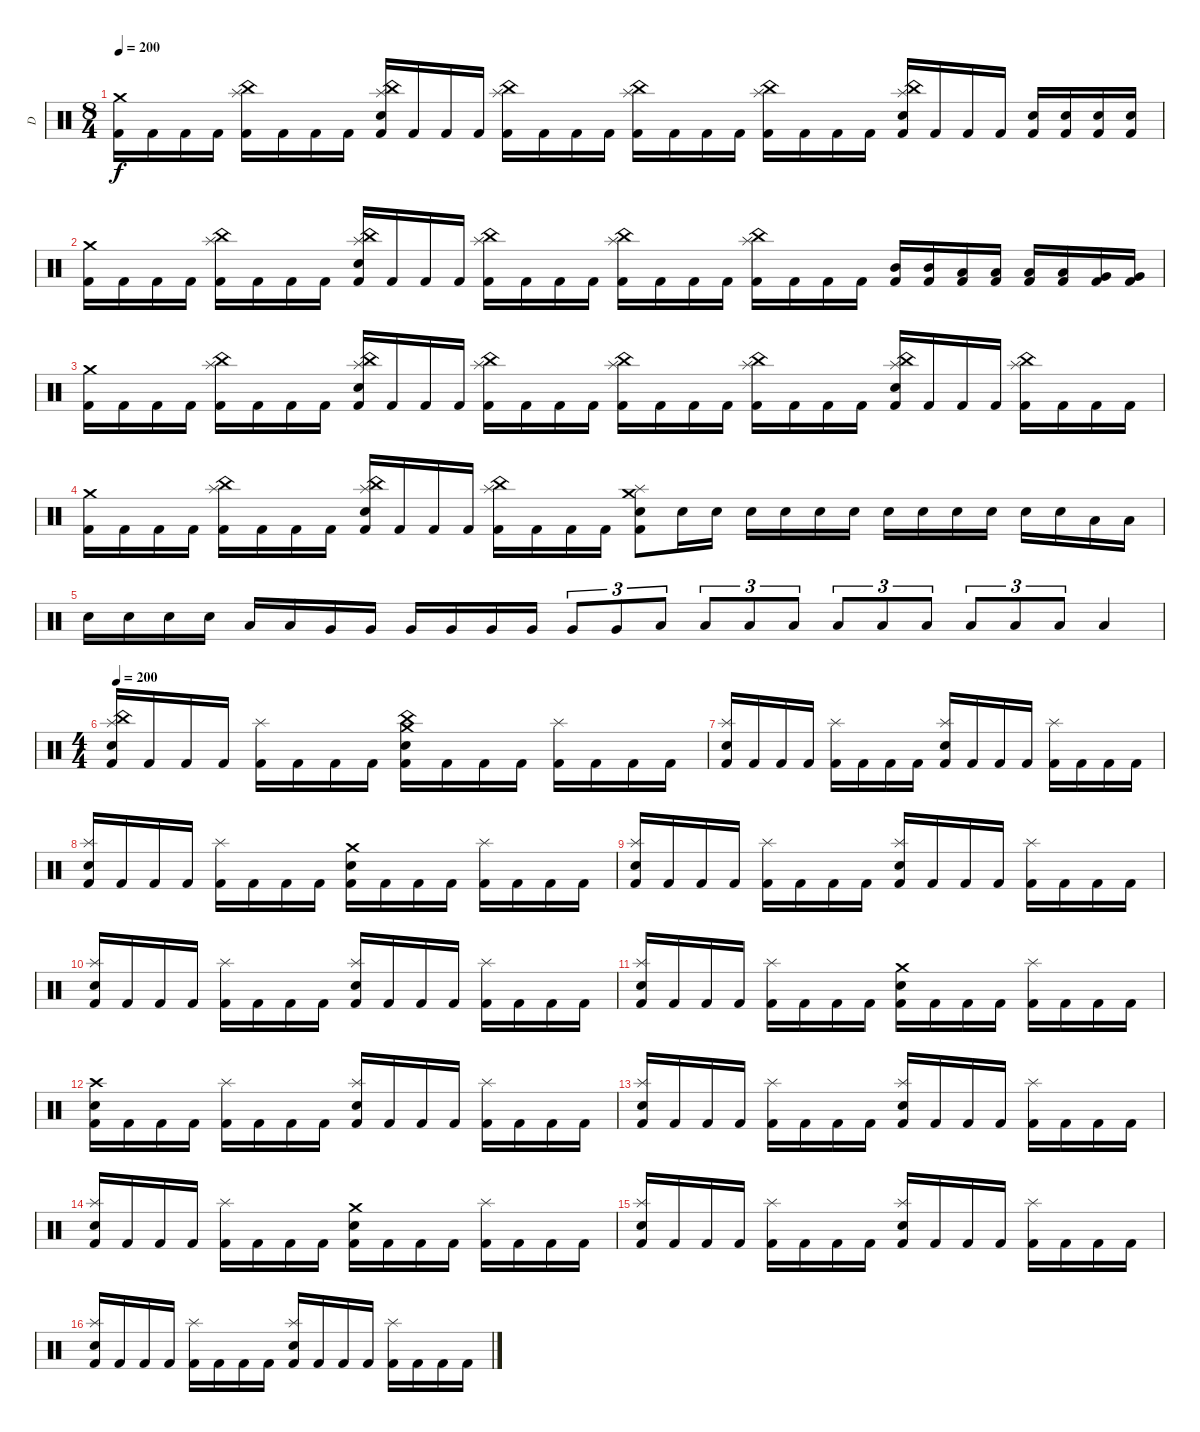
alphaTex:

\track ("D" "D") {instrument percussion}
\staff {score}
\articulation defaults
\ts (8 4)
\tempo 200
\clef neutral
\ks c
("Crash medium (hit)" "Kick (hit) 2").16{dy f} "Kick (hit) 2".16 "Kick (hit) 2".16 "Kick (hit) 2".16 ("Splash (hit)" "China (hit)" "Kick (hit) 2").16 "Kick (hit) 2".16 "Kick (hit) 2".16 "Kick (hit) 2".16 ("Splash (hit)" "China (hit)" "Electric Snare (hit)" "Kick (hit) 2").16 "Kick (hit) 2".16 "Kick (hit) 2".16 "Kick (hit) 2".16 ("Splash (hit)" "China (hit)" "Kick (hit) 2").16 "Kick (hit) 2".16 "Kick (hit) 2".16 "Kick (hit) 2".16 ("Splash (hit)" "China (hit)" "Kick (hit) 2").16 "Kick (hit) 2".16 "Kick (hit) 2".16 "Kick (hit) 2".16 ("Splash (hit)" "China (hit)" "Kick (hit) 2").16 "Kick (hit) 2".16 "Kick (hit) 2".16 "Kick (hit) 2".16 ("Splash (hit)" "China (hit)" "Electric Snare (hit)" "Kick (hit) 2").16 "Kick (hit) 2".16 "Kick (hit) 2".16 "Kick (hit) 2".16 ("Electric Snare (hit)" "Kick (hit) 2").16 ("Electric Snare (hit)" "Kick (hit) 2").16 ("Electric Snare (hit)" "Kick (hit) 2").16 ("Electric Snare (hit)" "Kick (hit) 2").16 |
("Crash medium (hit)" "Kick (hit) 2").16 "Kick (hit) 2".16 "Kick (hit) 2".16 "Kick (hit) 2".16 ("Splash (hit)" "China (hit)" "Kick (hit) 2").16 "Kick (hit) 2".16 "Kick (hit) 2".16 "Kick (hit) 2".16 ("Splash (hit)" "China (hit)" "Electric Snare (hit)" "Kick (hit) 2").16 "Kick (hit) 2".16 "Kick (hit) 2".16 "Kick (hit) 2".16 ("Splash (hit)" "China (hit)" "Kick (hit) 2").16 "Kick (hit) 2".16 "Kick (hit) 2".16 "Kick (hit) 2".16 ("Splash (hit)" "China (hit)" "Kick (hit) 2").16 "Kick (hit) 2".16 "Kick (hit) 2".16 "Kick (hit) 2".16 ("Splash (hit)" "China (hit)" "Kick (hit) 2").16 "Kick (hit) 2".16 "Kick (hit) 2".16 "Kick (hit) 2".16 ("Mid Tom (hit)" "Kick (hit) 2").16 ("Mid Tom (hit)" "Kick (hit) 2").16 ("Low Tom (hit)" "Kick (hit) 2").16 ("Low Tom (hit)" "Kick (hit) 2").16 ("Low Tom (hit)" "Kick (hit) 2").16 ("Low Tom (hit)" "Kick (hit) 2").16 ("Very Low Tom (hit)" "Kick (hit) 2").16 ("Very Low Tom (hit)" "Kick (hit) 2").16 |
("Crash medium (hit)" "Kick (hit) 2").16 "Kick (hit) 2".16 "Kick (hit) 2".16 "Kick (hit) 2".16 ("Splash (hit)" "China (hit)" "Kick (hit) 2").16 "Kick (hit) 2".16 "Kick (hit) 2".16 "Kick (hit) 2".16 ("Splash (hit)" "China (hit)" "Electric Snare (hit)" "Kick (hit) 2").16 "Kick (hit) 2".16 "Kick (hit) 2".16 "Kick (hit) 2".16 ("Splash (hit)" "China (hit)" "Kick (hit) 2").16 "Kick (hit) 2".16 "Kick (hit) 2".16 "Kick (hit) 2".16 ("Splash (hit)" "China (hit)" "Kick (hit) 2").16 "Kick (hit) 2".16 "Kick (hit) 2".16 "Kick (hit) 2".16 ("Splash (hit)" "China (hit)" "Kick (hit) 2").16 "Kick (hit) 2".16 "Kick (hit) 2".16 "Kick (hit) 2".16 ("Splash (hit)" "China (hit)" "Electric Snare (hit)" "Kick (hit) 2").16 "Kick (hit) 2".16 "Kick (hit) 2".16 "Kick (hit) 2".16 ("Splash (hit)" "China (hit)" "Kick (hit) 2").16 "Kick (hit) 2".16 "Kick (hit) 2".16 "Kick (hit) 2".16 |
("Crash medium (hit)" "Kick (hit) 2").16 "Kick (hit) 2".16 "Kick (hit) 2".16 "Kick (hit) 2".16 ("Splash (hit)" "China (hit)" "Kick (hit) 2").16 "Kick (hit) 2".16 "Kick (hit) 2".16 "Kick (hit) 2".16 ("Splash (hit)" "China (hit)" "Electric Snare (hit)" "Kick (hit) 2").16 "Kick (hit) 2".16 "Kick (hit) 2".16 "Kick (hit) 2".16 ("Splash (hit)" "China (hit)" "Kick (hit) 2").16 "Kick (hit) 2".16 "Kick (hit) 2".16 "Kick (hit) 2".16 ("Splash (hit)" "Crash medium (hit)" "Electric Snare (hit)" "Kick (hit) 2").8 "Electric Snare (hit)".16 "Electric Snare (hit)".16 "Electric Snare (hit)".16 "Electric Snare (hit)".16 "Electric Snare (hit)".16 "Electric Snare (hit)".16 "Electric Snare (hit)".16 "Electric Snare (hit)".16 "Electric Snare (hit)".16 "Electric Snare (hit)".16 "Electric Snare (hit)".16 "Electric Snare (hit)".16 "Low Tom (hit)".16 "Low Tom (hit)".16 |
"Electric Snare (hit)".16 "Electric Snare (hit)".16 "Electric Snare (hit)".16 "Electric Snare (hit)".16 "Low Tom (hit)".16 "Low Tom (hit)".16 "Very Low Tom (hit)".16 "Very Low Tom (hit)".16 "Very Low Tom (hit)".16 "Very Low Tom (hit)".16 "Very Low Tom (hit)".16 "Very Low Tom (hit)".16 "Very Low Tom (hit)".8{tu (3 2)} "Very Low Tom (hit)".8{tu (3 2)} "Low Floor Tom (hit)".8{tu (3 2)} "Low Floor Tom (hit)".8{tu (3 2)} "Low Floor Tom (hit)".8{tu (3 2)} "Low Floor Tom (hit)".8{tu (3 2)} "Low Floor Tom (hit)".8{tu (3 2)} "Low Floor Tom (hit)".8{tu (3 2)} "Low Floor Tom (hit)".8{tu (3 2)} "Low Floor Tom (hit)".8{tu (3 2)} "Low Floor Tom (hit)".8{tu (3 2)} "Low Floor Tom (hit)".8{tu (3 2)} "Low Floor Tom (hit)".4 |
\ts (4 4)
\tempo 200
("Electric Snare (hit)" "Splash (hit)" "China (hit)" "Kick (hit) 2").16 "Kick (hit) 2".16 "Kick (hit) 2".16 "Kick (hit) 2".16 ("Splash (hit)" "Kick (hit) 2").16 "Kick (hit) 2".16 "Kick (hit) 2".16 "Kick (hit) 2".16 ("Crash medium (hit)" "Electric Snare (hit)" "China (hit)" "Kick (hit) 2").16 "Kick (hit) 2".16 "Kick (hit) 2".16 "Kick (hit) 2".16 ("Splash (hit)" "Kick (hit) 2").16 "Kick (hit) 2".16 "Kick (hit) 2".16 "Kick (hit) 2".16 |
("Electric Snare (hit)" "Splash (hit)" "Kick (hit) 2").16 "Kick (hit) 2".16 "Kick (hit) 2".16 "Kick (hit) 2".16 ("Splash (hit)" "Kick (hit) 2").16 "Kick (hit) 2".16 "Kick (hit) 2".16 "Kick (hit) 2".16 ("Splash (hit)" "Electric Snare (hit)" "Kick (hit) 2").16 "Kick (hit) 2".16 "Kick (hit) 2".16 "Kick (hit) 2".16 ("Splash (hit)" "Kick (hit) 2").16 "Kick (hit) 2".16 "Kick (hit) 2".16 "Kick (hit) 2".16 |
("Electric Snare (hit)" "Splash (hit)" "Kick (hit) 2").16 "Kick (hit) 2".16 "Kick (hit) 2".16 "Kick (hit) 2".16 ("Splash (hit)" "Kick (hit) 2").16 "Kick (hit) 2".16 "Kick (hit) 2".16 "Kick (hit) 2".16 ("Crash medium (hit)" "Electric Snare (hit)" "Kick (hit) 2").16 "Kick (hit) 2".16 "Kick (hit) 2".16 "Kick (hit) 2".16 ("Splash (hit)" "Kick (hit) 2").16 "Kick (hit) 2".16 "Kick (hit) 2".16 "Kick (hit) 2".16 |
("Electric Snare (hit)" "Splash (hit)" "Kick (hit) 2").16 "Kick (hit) 2".16 "Kick (hit) 2".16 "Kick (hit) 2".16 ("Splash (hit)" "Kick (hit) 2").16 "Kick (hit) 2".16 "Kick (hit) 2".16 "Kick (hit) 2".16 ("Splash (hit)" "Electric Snare (hit)" "Kick (hit) 2").16 "Kick (hit) 2".16 "Kick (hit) 2".16 "Kick (hit) 2".16 ("Splash (hit)" "Kick (hit) 2").16 "Kick (hit) 2".16 "Kick (hit) 2".16 "Kick (hit) 2".16 |
("Electric Snare (hit)" "Splash (hit)" "Kick (hit) 2").16 "Kick (hit) 2".16 "Kick (hit) 2".16 "Kick (hit) 2".16 ("Splash (hit)" "Kick (hit) 2").16 "Kick (hit) 2".16 "Kick (hit) 2".16 "Kick (hit) 2".16 ("Splash (hit)" "Electric Snare (hit)" "Kick (hit) 2").16 "Kick (hit) 2".16 "Kick (hit) 2".16 "Kick (hit) 2".16 ("Splash (hit)" "Kick (hit) 2").16 "Kick (hit) 2".16 "Kick (hit) 2".16 "Kick (hit) 2".16 |
("Electric Snare (hit)" "Splash (hit)" "Kick (hit) 2").16 "Kick (hit) 2".16 "Kick (hit) 2".16 "Kick (hit) 2".16 ("Splash (hit)" "Kick (hit) 2").16 "Kick (hit) 2".16 "Kick (hit) 2".16 "Kick (hit) 2".16 ("Crash medium (hit)" "Electric Snare (hit)" "Kick (hit) 2").16 "Kick (hit) 2".16 "Kick (hit) 2".16 "Kick (hit) 2".16 ("Splash (hit)" "Kick (hit) 2").16 "Kick (hit) 2".16 "Kick (hit) 2".16 "Kick (hit) 2".16 |
("Electric Snare (hit)" "Crash high (hit)" "Kick (hit) 2").16 "Kick (hit) 2".16 "Kick (hit) 2".16 "Kick (hit) 2".16 ("Splash (hit)" "Kick (hit) 2").16 "Kick (hit) 2".16 "Kick (hit) 2".16 "Kick (hit) 2".16 ("Splash (hit)" "Electric Snare (hit)" "Kick (hit) 2").16 "Kick (hit) 2".16 "Kick (hit) 2".16 "Kick (hit) 2".16 ("Splash (hit)" "Kick (hit) 2").16 "Kick (hit) 2".16 "Kick (hit) 2".16 "Kick (hit) 2".16 |
("Electric Snare (hit)" "Splash (hit)" "Kick (hit) 2").16 "Kick (hit) 2".16 "Kick (hit) 2".16 "Kick (hit) 2".16 ("Splash (hit)" "Kick (hit) 2").16 "Kick (hit) 2".16 "Kick (hit) 2".16 "Kick (hit) 2".16 ("Splash (hit)" "Electric Snare (hit)" "Kick (hit) 2").16 "Kick (hit) 2".16 "Kick (hit) 2".16 "Kick (hit) 2".16 ("Splash (hit)" "Kick (hit) 2").16 "Kick (hit) 2".16 "Kick (hit) 2".16 "Kick (hit) 2".16 |
("Electric Snare (hit)" "Splash (hit)" "Kick (hit) 2").16 "Kick (hit) 2".16 "Kick (hit) 2".16 "Kick (hit) 2".16 ("Splash (hit)" "Kick (hit) 2").16 "Kick (hit) 2".16 "Kick (hit) 2".16 "Kick (hit) 2".16 ("Crash medium (hit)" "Electric Snare (hit)" "Kick (hit) 2").16 "Kick (hit) 2".16 "Kick (hit) 2".16 "Kick (hit) 2".16 ("Splash (hit)" "Kick (hit) 2").16 "Kick (hit) 2".16 "Kick (hit) 2".16 "Kick (hit) 2".16 |
("Electric Snare (hit)" "Splash (hit)" "Kick (hit) 2").16 "Kick (hit) 2".16 "Kick (hit) 2".16 "Kick (hit) 2".16 ("Splash (hit)" "Kick (hit) 2").16 "Kick (hit) 2".16 "Kick (hit) 2".16 "Kick (hit) 2".16 ("Splash (hit)" "Electric Snare (hit)" "Kick (hit) 2").16 "Kick (hit) 2".16 "Kick (hit) 2".16 "Kick (hit) 2".16 ("Splash (hit)" "Kick (hit) 2").16 "Kick (hit) 2".16 "Kick (hit) 2".16 "Kick (hit) 2".16 |
("Electric Snare (hit)" "Splash (hit)" "Kick (hit) 2").16 "Kick (hit) 2".16 "Kick (hit) 2".16 "Kick (hit) 2".16 ("Splash (hit)" "Kick (hit) 2").16 "Kick (hit) 2".16 "Kick (hit) 2".16 "Kick (hit) 2".16 ("Splash (hit)" "Electric Snare (hit)" "Kick (hit) 2").16 "Kick (hit) 2".16 "Kick (hit) 2".16 "Kick (hit) 2".16 ("Splash (hit)" "Kick (hit) 2").16 "Kick (hit) 2".16 "Kick (hit) 2".16 "Kick (hit) 2".16
